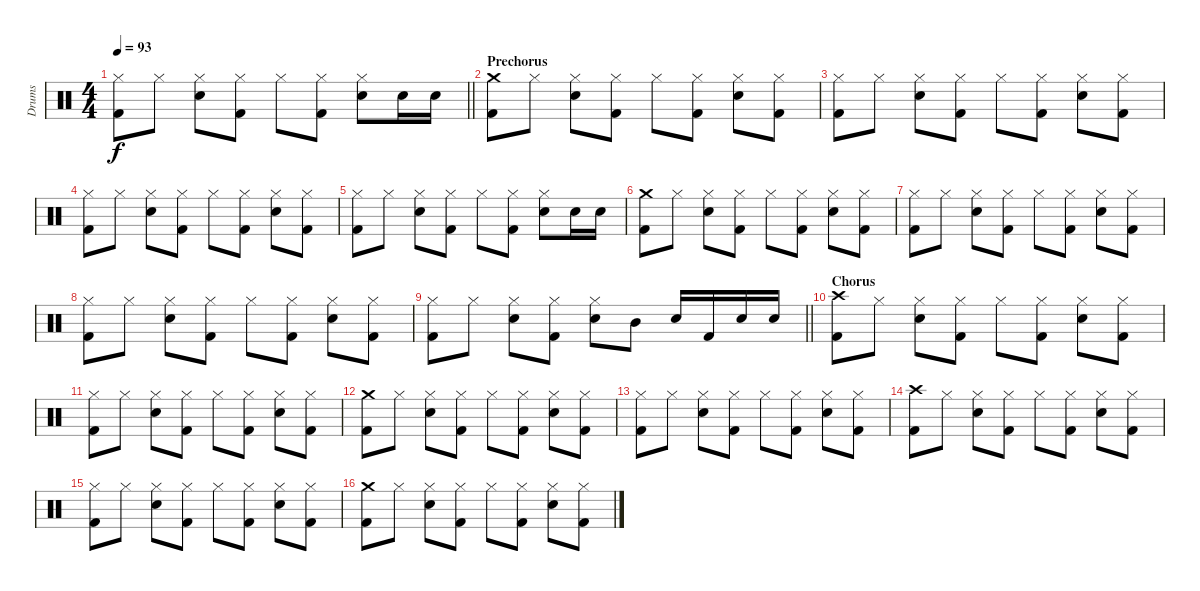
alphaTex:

\track ("Drums" "Drums") {instrument percussion}
\staff {score}
\articulation defaults
\ts (4 4)
\tempo 93
\clef neutral
\barLineRight lightlight
\ks c
("Hi-Hat (closed)" "Kick (hit) 2").8{dy f} "Hi-Hat (closed)".8 ("Hi-Hat (closed)" "Electric Snare (hit)").8 ("Hi-Hat (closed)" "Kick (hit) 2").8 "Hi-Hat (closed)".8 ("Hi-Hat (closed)" "Kick (hit) 2").8 ("Hi-Hat (closed)" "Electric Snare (hit)").8 "Electric Snare (hit)".16 "Electric Snare (hit)".16 |
\section ("" "Prechorus")
("Crash medium (hit)" "Kick (hit) 2").8 "Hi-Hat (closed)".8 ("Hi-Hat (closed)" "Electric Snare (hit)").8 ("Hi-Hat (closed)" "Kick (hit) 2").8 "Hi-Hat (closed)".8 ("Hi-Hat (closed)" "Kick (hit) 2").8 ("Hi-Hat (closed)" "Electric Snare (hit)").8 ("Hi-Hat (closed)" "Kick (hit) 2").8 |
("Hi-Hat (closed)" "Kick (hit) 2").8 "Hi-Hat (closed)".8 ("Hi-Hat (closed)" "Electric Snare (hit)").8 ("Hi-Hat (closed)" "Kick (hit) 2").8 "Hi-Hat (closed)".8 ("Hi-Hat (closed)" "Kick (hit) 2").8 ("Hi-Hat (closed)" "Electric Snare (hit)").8 ("Hi-Hat (closed)" "Kick (hit) 2").8 |
("Hi-Hat (closed)" "Kick (hit) 2").8 "Hi-Hat (closed)".8 ("Hi-Hat (closed)" "Electric Snare (hit)").8 ("Hi-Hat (closed)" "Kick (hit) 2").8 "Hi-Hat (closed)".8 ("Hi-Hat (closed)" "Kick (hit) 2").8 ("Hi-Hat (closed)" "Electric Snare (hit)").8 ("Hi-Hat (closed)" "Kick (hit) 2").8 |
("Hi-Hat (closed)" "Kick (hit) 2").8 "Hi-Hat (closed)".8 ("Hi-Hat (closed)" "Electric Snare (hit)").8 ("Hi-Hat (closed)" "Kick (hit) 2").8 "Hi-Hat (closed)".8 ("Hi-Hat (closed)" "Kick (hit) 2").8 ("Hi-Hat (closed)" "Electric Snare (hit)").8 "Electric Snare (hit)".16 "Electric Snare (hit)".16 |
("Crash medium (hit)" "Kick (hit) 2").8 "Hi-Hat (closed)".8 ("Hi-Hat (closed)" "Electric Snare (hit)").8 ("Hi-Hat (closed)" "Kick (hit) 2").8 "Hi-Hat (closed)".8 ("Hi-Hat (closed)" "Kick (hit) 2").8 ("Hi-Hat (closed)" "Electric Snare (hit)").8 ("Hi-Hat (closed)" "Kick (hit) 2").8 |
("Hi-Hat (closed)" "Kick (hit) 2").8 "Hi-Hat (closed)".8 ("Hi-Hat (closed)" "Electric Snare (hit)").8 ("Hi-Hat (closed)" "Kick (hit) 2").8 "Hi-Hat (closed)".8 ("Hi-Hat (closed)" "Kick (hit) 2").8 ("Hi-Hat (closed)" "Electric Snare (hit)").8 ("Hi-Hat (closed)" "Kick (hit) 2").8 |
("Hi-Hat (closed)" "Kick (hit) 2").8 "Hi-Hat (closed)".8 ("Hi-Hat (closed)" "Electric Snare (hit)").8 ("Hi-Hat (closed)" "Kick (hit) 2").8 "Hi-Hat (closed)".8 ("Hi-Hat (closed)" "Kick (hit) 2").8 ("Hi-Hat (closed)" "Electric Snare (hit)").8 ("Hi-Hat (closed)" "Kick (hit) 2").8 |
\barLineRight lightlight
("Hi-Hat (closed)" "Kick (hit) 2").8 "Hi-Hat (closed)".8 ("Hi-Hat (closed)" "Electric Snare (hit)").8 ("Hi-Hat (closed)" "Kick (hit) 2").8 ("Hi-Hat (closed)" "Electric Snare (hit)").8 "Mid Tom (hit)".8 "Electric Snare (hit)".16 "Kick (hit) 2".16 "Electric Snare (hit)".16 "Electric Snare (hit)".16 |
\section ("" "Chorus")
("Crash high (hit)" "Kick (hit) 2").8 "Hi-Hat (closed)".8 ("Hi-Hat (closed)" "Electric Snare (hit)").8 ("Hi-Hat (closed)" "Kick (hit) 2").8 "Hi-Hat (closed)".8 ("Hi-Hat (closed)" "Kick (hit) 2").8 ("Hi-Hat (closed)" "Electric Snare (hit)").8 ("Hi-Hat (closed)" "Kick (hit) 2").8 |
("Hi-Hat (closed)" "Kick (hit) 2").8 "Hi-Hat (closed)".8 ("Hi-Hat (closed)" "Electric Snare (hit)").8 ("Hi-Hat (closed)" "Kick (hit) 2").8 "Hi-Hat (closed)".8 ("Hi-Hat (closed)" "Kick (hit) 2").8 ("Hi-Hat (closed)" "Electric Snare (hit)").8 ("Hi-Hat (closed)" "Kick (hit) 2").8 |
("Crash medium (hit)" "Kick (hit) 2").8 "Hi-Hat (closed)".8 ("Hi-Hat (closed)" "Electric Snare (hit)").8 ("Hi-Hat (closed)" "Kick (hit) 2").8 "Hi-Hat (closed)".8 ("Hi-Hat (closed)" "Kick (hit) 2").8 ("Hi-Hat (closed)" "Electric Snare (hit)").8 ("Hi-Hat (closed)" "Kick (hit) 2").8 |
("Hi-Hat (closed)" "Kick (hit) 2").8 "Hi-Hat (closed)".8 ("Hi-Hat (closed)" "Electric Snare (hit)").8 ("Hi-Hat (closed)" "Kick (hit) 2").8 "Hi-Hat (closed)".8 ("Hi-Hat (closed)" "Kick (hit) 2").8 ("Hi-Hat (closed)" "Electric Snare (hit)").8 ("Hi-Hat (closed)" "Kick (hit) 2").8 |
("Crash high (hit)" "Kick (hit) 2").8 "Hi-Hat (closed)".8 ("Hi-Hat (closed)" "Electric Snare (hit)").8 ("Hi-Hat (closed)" "Kick (hit) 2").8 "Hi-Hat (closed)".8 ("Hi-Hat (closed)" "Kick (hit) 2").8 ("Hi-Hat (closed)" "Electric Snare (hit)").8 ("Hi-Hat (closed)" "Kick (hit) 2").8 |
("Hi-Hat (closed)" "Kick (hit) 2").8 "Hi-Hat (closed)".8 ("Hi-Hat (closed)" "Electric Snare (hit)").8 ("Hi-Hat (closed)" "Kick (hit) 2").8 "Hi-Hat (closed)".8 ("Hi-Hat (closed)" "Kick (hit) 2").8 ("Hi-Hat (closed)" "Electric Snare (hit)").8 ("Hi-Hat (closed)" "Kick (hit) 2").8 |
("Crash medium (hit)" "Kick (hit) 2").8 "Hi-Hat (closed)".8 ("Hi-Hat (closed)" "Electric Snare (hit)").8 ("Hi-Hat (closed)" "Kick (hit) 2").8 "Hi-Hat (closed)".8 ("Hi-Hat (closed)" "Kick (hit) 2").8 ("Hi-Hat (closed)" "Electric Snare (hit)").8 ("Hi-Hat (closed)" "Kick (hit) 2").8
